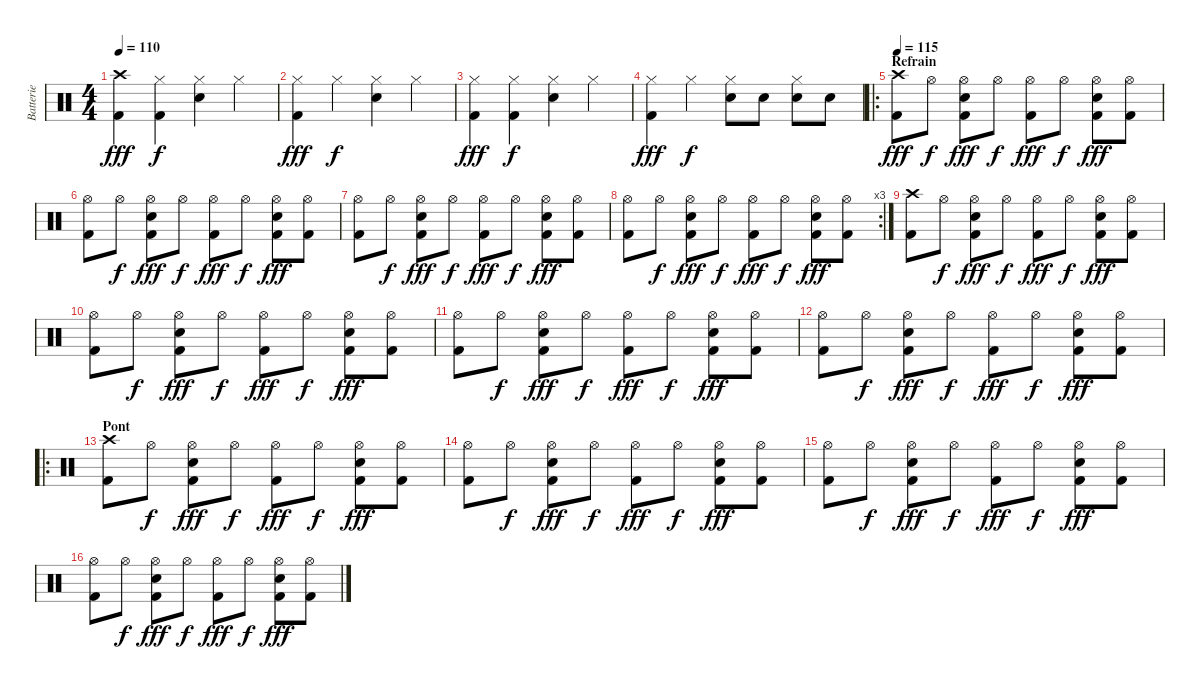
\track ("Batterie" "Batterie") {instrument percussion}
\staff {score}
\articulation defaults
\ts (4 4)
\tempo 110
\clef neutral
\ks c
("Crash high (hit)" "Kick (hit) 2").4{dy fff} ("Hi-Hat (closed)" "Kick (hit) 2").4{dy f} ("Hi-Hat (closed)" "Electric Snare (hit)").4 "Hi-Hat (closed)".4 |
("Hi-Hat (closed)" "Kick (hit) 2").4{dy fff} "Hi-Hat (closed)".4{dy f} ("Hi-Hat (closed)" "Electric Snare (hit)").4 "Hi-Hat (closed)".4 |
("Hi-Hat (closed)" "Kick (hit) 2").4{dy fff} ("Hi-Hat (closed)" "Kick (hit) 2").4{dy f} ("Hi-Hat (closed)" "Electric Snare (hit)").4 "Hi-Hat (closed)".4 |
("Hi-Hat (closed)" "Kick (hit) 2").4{dy fff} "Hi-Hat (closed)".4{dy f} ("Hi-Hat (closed)" "Electric Snare (hit)").8 "Electric Snare (hit)".8 ("Hi-Hat (closed)" "Electric Snare (hit)").8 "Electric Snare (hit)".8 |
\ro
\section ("" "Refrain")
\tempo 115
("Crash high (hit)" "Kick (hit) 2").8{dy fff} "Hi-Hat (open)".8{dy f} ("Hi-Hat (open)" "Kick (hit) 2" "Electric Snare (hit)").8{dy fff} "Hi-Hat (open)".8{dy f} ("Hi-Hat (open)" "Kick (hit) 2").8{dy fff} "Hi-Hat (open)".8{dy f} ("Hi-Hat (open)" "Kick (hit) 2" "Electric Snare (hit)").8{dy fff} ("Hi-Hat (open)" "Kick (hit) 2").8 |
("Hi-Hat (open)" "Kick (hit) 2").8 "Hi-Hat (open)".8{dy f} ("Hi-Hat (open)" "Kick (hit) 2" "Electric Snare (hit)").8{dy fff} "Hi-Hat (open)".8{dy f} ("Hi-Hat (open)" "Kick (hit) 2").8{dy fff} "Hi-Hat (open)".8{dy f} ("Hi-Hat (open)" "Kick (hit) 2" "Electric Snare (hit)").8{dy fff} ("Hi-Hat (open)" "Kick (hit) 2").8 |
("Hi-Hat (open)" "Kick (hit) 2").8 "Hi-Hat (open)".8{dy f} ("Hi-Hat (open)" "Kick (hit) 2" "Electric Snare (hit)").8{dy fff} "Hi-Hat (open)".8{dy f} ("Hi-Hat (open)" "Kick (hit) 2").8{dy fff} "Hi-Hat (open)".8{dy f} ("Hi-Hat (open)" "Kick (hit) 2" "Electric Snare (hit)").8{dy fff} ("Hi-Hat (open)" "Kick (hit) 2").8 |
\rc 3
("Hi-Hat (open)" "Kick (hit) 2").8 "Hi-Hat (open)".8{dy f} ("Hi-Hat (open)" "Kick (hit) 2" "Electric Snare (hit)").8{dy fff} "Hi-Hat (open)".8{dy f} ("Hi-Hat (open)" "Kick (hit) 2").8{dy fff} "Hi-Hat (open)".8{dy f} ("Hi-Hat (open)" "Kick (hit) 2" "Electric Snare (hit)").8{dy fff} ("Hi-Hat (open)" "Kick (hit) 2").8 |
("Crash high (hit)" "Kick (hit) 2").8 "Hi-Hat (open)".8{dy f} ("Hi-Hat (open)" "Kick (hit) 2" "Electric Snare (hit)").8{dy fff} "Hi-Hat (open)".8{dy f} ("Hi-Hat (open)" "Kick (hit) 2").8{dy fff} "Hi-Hat (open)".8{dy f} ("Hi-Hat (open)" "Kick (hit) 2" "Electric Snare (hit)").8{dy fff} ("Hi-Hat (open)" "Kick (hit) 2").8 |
("Hi-Hat (open)" "Kick (hit) 2").8 "Hi-Hat (open)".8{dy f} ("Hi-Hat (open)" "Kick (hit) 2" "Electric Snare (hit)").8{dy fff} "Hi-Hat (open)".8{dy f} ("Hi-Hat (open)" "Kick (hit) 2").8{dy fff} "Hi-Hat (open)".8{dy f} ("Hi-Hat (open)" "Kick (hit) 2" "Electric Snare (hit)").8{dy fff} ("Hi-Hat (open)" "Kick (hit) 2").8 |
("Hi-Hat (open)" "Kick (hit) 2").8 "Hi-Hat (open)".8{dy f} ("Hi-Hat (open)" "Kick (hit) 2" "Electric Snare (hit)").8{dy fff} "Hi-Hat (open)".8{dy f} ("Hi-Hat (open)" "Kick (hit) 2").8{dy fff} "Hi-Hat (open)".8{dy f} ("Hi-Hat (open)" "Kick (hit) 2" "Electric Snare (hit)").8{dy fff} ("Hi-Hat (open)" "Kick (hit) 2").8 |
("Hi-Hat (open)" "Kick (hit) 2").8 "Hi-Hat (open)".8{dy f} ("Hi-Hat (open)" "Kick (hit) 2" "Electric Snare (hit)").8{dy fff} "Hi-Hat (open)".8{dy f} ("Hi-Hat (open)" "Kick (hit) 2").8{dy fff} "Hi-Hat (open)".8{dy f} ("Hi-Hat (open)" "Kick (hit) 2" "Electric Snare (hit)").8{dy fff} ("Hi-Hat (open)" "Kick (hit) 2").8 |
\ro
\section ("" "Pont")
("Crash high (hit)" "Kick (hit) 2").8 "Hi-Hat (open)".8{dy f} ("Hi-Hat (open)" "Kick (hit) 2" "Electric Snare (hit)").8{dy fff} "Hi-Hat (open)".8{dy f} ("Hi-Hat (open)" "Kick (hit) 2").8{dy fff} "Hi-Hat (open)".8{dy f} ("Hi-Hat (open)" "Kick (hit) 2" "Electric Snare (hit)").8{dy fff} ("Hi-Hat (open)" "Kick (hit) 2").8 |
("Hi-Hat (open)" "Kick (hit) 2").8 "Hi-Hat (open)".8{dy f} ("Hi-Hat (open)" "Kick (hit) 2" "Electric Snare (hit)").8{dy fff} "Hi-Hat (open)".8{dy f} ("Hi-Hat (open)" "Kick (hit) 2").8{dy fff} "Hi-Hat (open)".8{dy f} ("Hi-Hat (open)" "Kick (hit) 2" "Electric Snare (hit)").8{dy fff} ("Hi-Hat (open)" "Kick (hit) 2").8 |
("Hi-Hat (open)" "Kick (hit) 2").8 "Hi-Hat (open)".8{dy f} ("Hi-Hat (open)" "Kick (hit) 2" "Electric Snare (hit)").8{dy fff} "Hi-Hat (open)".8{dy f} ("Hi-Hat (open)" "Kick (hit) 2").8{dy fff} "Hi-Hat (open)".8{dy f} ("Hi-Hat (open)" "Kick (hit) 2" "Electric Snare (hit)").8{dy fff} ("Hi-Hat (open)" "Kick (hit) 2").8 |
("Hi-Hat (open)" "Kick (hit) 2").8 "Hi-Hat (open)".8{dy f} ("Hi-Hat (open)" "Kick (hit) 2" "Electric Snare (hit)").8{dy fff} "Hi-Hat (open)".8{dy f} ("Hi-Hat (open)" "Kick (hit) 2").8{dy fff} "Hi-Hat (open)".8{dy f} ("Hi-Hat (open)" "Kick (hit) 2" "Electric Snare (hit)").8{dy fff} ("Hi-Hat (open)" "Kick (hit) 2").8
